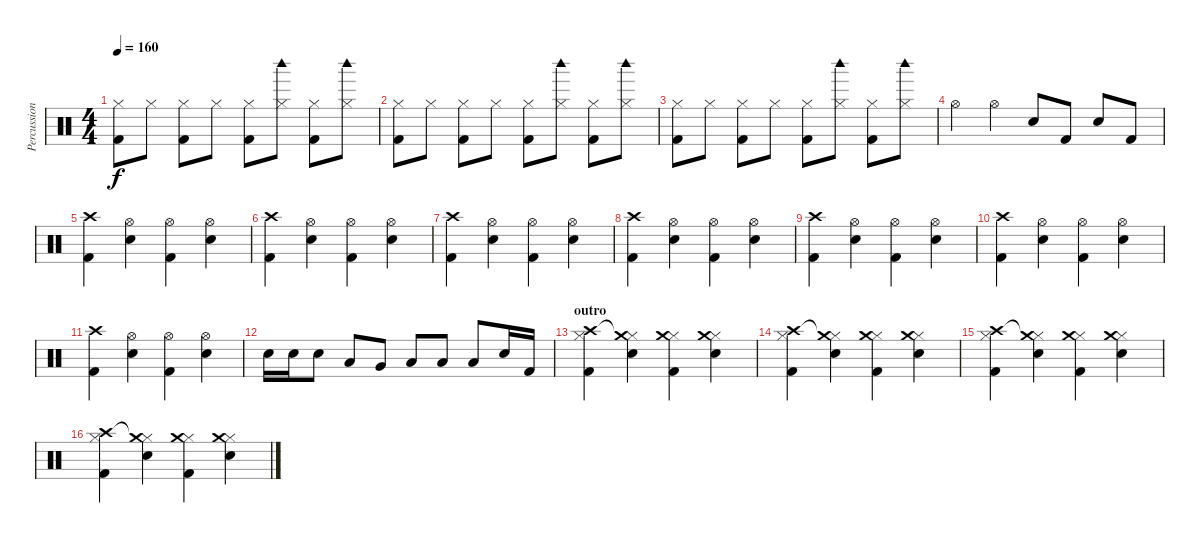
\track ("Percussion" "Percussion") {instrument percussion}
\staff {score}
\articulation defaults
\ts (4 4)
\tempo 160
\clef neutral
\ks c
("Hi-Hat (closed)" "Kick (hit) 2").8{dy f} "Hi-Hat (closed)".8 ("Hi-Hat (closed)" "Kick (hit) 2").8 "Hi-Hat (closed)".8 ("Hi-Hat (closed)" "Kick (hit) 2").8 ("Hi-Hat (closed)" "Woodblock high (hit)").8 ("Hi-Hat (closed)" "Kick (hit) 2").8 ("Hi-Hat (closed)" "Woodblock high (hit)").8 |
("Hi-Hat (closed)" "Kick (hit) 2").8 "Hi-Hat (closed)".8 ("Hi-Hat (closed)" "Kick (hit) 2").8 "Hi-Hat (closed)".8 ("Hi-Hat (closed)" "Kick (hit) 2").8 ("Hi-Hat (closed)" "Woodblock high (hit)").8 ("Hi-Hat (closed)" "Kick (hit) 2").8 ("Hi-Hat (closed)" "Woodblock high (hit)").8 |
("Hi-Hat (closed)" "Kick (hit) 2").8 "Hi-Hat (closed)".8 ("Hi-Hat (closed)" "Kick (hit) 2").8 "Hi-Hat (closed)".8 ("Hi-Hat (closed)" "Kick (hit) 2").8 ("Hi-Hat (closed)" "Woodblock high (hit)").8 ("Hi-Hat (closed)" "Kick (hit) 2").8 ("Hi-Hat (closed)" "Woodblock high (hit)").8 |
"Hi-Hat (open)".4 "Hi-Hat (open)".4 "Snare (hit) 2".8 "Kick (hit) 2".8 "Snare (hit) 2".8 "Kick (hit) 2".8 |
("Crash high (hit)" "Kick (hit) 2").4 ("Hi-Hat (open)" "Snare (hit) 2").4 ("Hi-Hat (open)" "Kick (hit) 2").4 ("Hi-Hat (open)" "Snare (hit) 2").4 |
("Crash high (hit)" "Kick (hit) 2").4 ("Hi-Hat (open)" "Snare (hit) 2").4 ("Hi-Hat (open)" "Kick (hit) 2").4 ("Hi-Hat (open)" "Snare (hit) 2").4 |
("Crash high (hit)" "Kick (hit) 2").4 ("Hi-Hat (open)" "Snare (hit) 2").4 ("Hi-Hat (open)" "Kick (hit) 2").4 ("Hi-Hat (open)" "Snare (hit) 2").4 |
("Crash high (hit)" "Kick (hit) 2").4 ("Hi-Hat (open)" "Snare (hit) 2").4 ("Hi-Hat (open)" "Kick (hit) 2").4 ("Hi-Hat (open)" "Snare (hit) 2").4 |
("Crash high (hit)" "Kick (hit) 2").4 ("Hi-Hat (open)" "Snare (hit) 2").4 ("Hi-Hat (open)" "Kick (hit) 2").4 ("Hi-Hat (open)" "Snare (hit) 2").4 |
("Crash high (hit)" "Kick (hit) 2").4 ("Hi-Hat (open)" "Snare (hit) 2").4 ("Hi-Hat (open)" "Kick (hit) 2").4 ("Hi-Hat (open)" "Snare (hit) 2").4 |
("Crash high (hit)" "Kick (hit) 2").4 ("Hi-Hat (open)" "Snare (hit) 2").4 ("Hi-Hat (open)" "Kick (hit) 2").4 ("Hi-Hat (open)" "Snare (hit) 2").4 |
"Snare (hit) 2".16 "Snare (hit) 2".16 "Snare (hit) 2".8 "Low Tom (hit)".8 "Very Low Tom (hit)".8 "Low Floor Tom (hit)".8 "Low Tom (hit)".8 "Low Floor Tom (hit)".8 "Snare (hit) 2".16 "Kick (hit) 2".16 |
\section ("" "outro")
("Hi-Hat (closed)" "Crash high (hit)" "Kick (hit) 2").4 ("Hi-Hat (closed)" "Crash medium (hit)"{t} "Snare (hit) 2").4 ("Hi-Hat (closed)" "Crash medium (hit)" "Kick (hit) 2").4 ("Hi-Hat (closed)" "Crash medium (hit)" "Snare (hit) 2").4 |
("Hi-Hat (closed)" "Crash high (hit)" "Kick (hit) 2").4 ("Hi-Hat (closed)" "Crash medium (hit)"{t} "Snare (hit) 2").4 ("Hi-Hat (closed)" "Crash medium (hit)" "Kick (hit) 2").4 ("Hi-Hat (closed)" "Crash medium (hit)" "Snare (hit) 2").4 |
("Hi-Hat (closed)" "Crash high (hit)" "Kick (hit) 2").4 ("Hi-Hat (closed)" "Crash medium (hit)"{t} "Snare (hit) 2").4 ("Hi-Hat (closed)" "Crash medium (hit)" "Kick (hit) 2").4 ("Hi-Hat (closed)" "Crash medium (hit)" "Snare (hit) 2").4 |
("Hi-Hat (closed)" "Crash high (hit)" "Kick (hit) 2").4 ("Hi-Hat (closed)" "Crash medium (hit)"{t} "Snare (hit) 2").4 ("Hi-Hat (closed)" "Crash medium (hit)" "Kick (hit) 2").4 ("Hi-Hat (closed)" "Crash medium (hit)" "Snare (hit) 2").4
